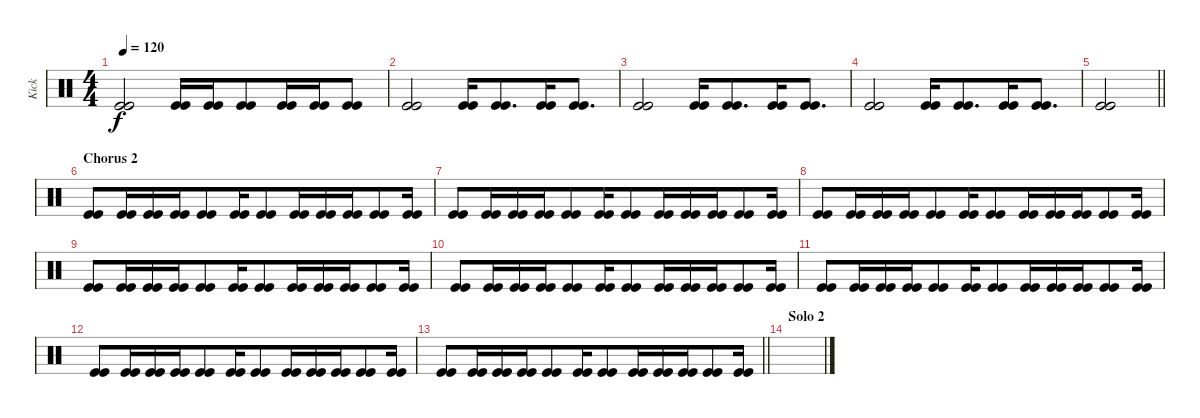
\track ("Kick" "Kick") {instrument percussion bank 2}
\staff {score}
\articulation defaults
\ts (4 4)
\tempo 120
\clef neutral
\ks c
("Kick (hit)" "Kick (hit)").2{dy f beam merge} ("Kick (hit)" "Kick (hit)").16{beam merge} ("Kick (hit)" "Kick (hit)").16{beam merge} ("Kick (hit)" "Kick (hit)").8{beam merge} ("Kick (hit)" "Kick (hit)").16 ("Kick (hit)" "Kick (hit)").16{beam merge} ("Kick (hit)" "Kick (hit)").8 |
("Kick (hit)" "Kick (hit)").2{beam merge} ("Kick (hit)" "Kick (hit)").16{beam merge} ("Kick (hit)" "Kick (hit)").8{d beam merge} ("Kick (hit)" "Kick (hit)").16 ("Kick (hit)" "Kick (hit)").8{d} |
("Kick (hit)" "Kick (hit)").2{beam merge} ("Kick (hit)" "Kick (hit)").16{beam merge} ("Kick (hit)" "Kick (hit)").8{d beam merge} ("Kick (hit)" "Kick (hit)").16 ("Kick (hit)" "Kick (hit)").8{d} |
("Kick (hit)" "Kick (hit)").2{beam merge} ("Kick (hit)" "Kick (hit)").16{beam merge} ("Kick (hit)" "Kick (hit)").8{d beam merge} ("Kick (hit)" "Kick (hit)").16 ("Kick (hit)" "Kick (hit)").8{d} |
\barLineRight lightlight
("Kick (hit)" "Kick (hit)").2 |
\section ("" "Chorus 2")
("Kick (hit)" "Kick (hit)").8{beam merge} ("Kick (hit)" "Kick (hit)").16{beam merge} ("Kick (hit)" "Kick (hit)").16{beam merge} ("Kick (hit)" "Kick (hit)").16{beam merge} ("Kick (hit)" "Kick (hit)").8{beam merge} ("Kick (hit)" "Kick (hit)").16{beam merge} ("Kick (hit)" "Kick (hit)").8{beam merge} ("Kick (hit)" "Kick (hit)").16{beam merge} ("Kick (hit)" "Kick (hit)").16{beam merge} ("Kick (hit)" "Kick (hit)").16{beam merge} ("Kick (hit)" "Kick (hit)").8{beam merge} ("Kick (hit)" "Kick (hit)").16 |
("Kick (hit)" "Kick (hit)").8{beam merge} ("Kick (hit)" "Kick (hit)").16{beam merge} ("Kick (hit)" "Kick (hit)").16{beam merge} ("Kick (hit)" "Kick (hit)").16{beam merge} ("Kick (hit)" "Kick (hit)").8{beam merge} ("Kick (hit)" "Kick (hit)").16{beam merge} ("Kick (hit)" "Kick (hit)").8{beam merge} ("Kick (hit)" "Kick (hit)").16{beam merge} ("Kick (hit)" "Kick (hit)").16{beam merge} ("Kick (hit)" "Kick (hit)").16{beam merge} ("Kick (hit)" "Kick (hit)").8{beam merge} ("Kick (hit)" "Kick (hit)").16 |
("Kick (hit)" "Kick (hit)").8{beam merge} ("Kick (hit)" "Kick (hit)").16{beam merge} ("Kick (hit)" "Kick (hit)").16{beam merge} ("Kick (hit)" "Kick (hit)").16{beam merge} ("Kick (hit)" "Kick (hit)").8{beam merge} ("Kick (hit)" "Kick (hit)").16{beam merge} ("Kick (hit)" "Kick (hit)").8{beam merge} ("Kick (hit)" "Kick (hit)").16{beam merge} ("Kick (hit)" "Kick (hit)").16{beam merge} ("Kick (hit)" "Kick (hit)").16{beam merge} ("Kick (hit)" "Kick (hit)").8{beam merge} ("Kick (hit)" "Kick (hit)").16 |
("Kick (hit)" "Kick (hit)").8{beam merge} ("Kick (hit)" "Kick (hit)").16{beam merge} ("Kick (hit)" "Kick (hit)").16{beam merge} ("Kick (hit)" "Kick (hit)").16{beam merge} ("Kick (hit)" "Kick (hit)").8{beam merge} ("Kick (hit)" "Kick (hit)").16{beam merge} ("Kick (hit)" "Kick (hit)").8{beam merge} ("Kick (hit)" "Kick (hit)").16{beam merge} ("Kick (hit)" "Kick (hit)").16{beam merge} ("Kick (hit)" "Kick (hit)").16{beam merge} ("Kick (hit)" "Kick (hit)").8{beam merge} ("Kick (hit)" "Kick (hit)").16 |
("Kick (hit)" "Kick (hit)").8{beam merge} ("Kick (hit)" "Kick (hit)").16{beam merge} ("Kick (hit)" "Kick (hit)").16{beam merge} ("Kick (hit)" "Kick (hit)").16{beam merge} ("Kick (hit)" "Kick (hit)").8{beam merge} ("Kick (hit)" "Kick (hit)").16{beam merge} ("Kick (hit)" "Kick (hit)").8{beam merge} ("Kick (hit)" "Kick (hit)").16{beam merge} ("Kick (hit)" "Kick (hit)").16{beam merge} ("Kick (hit)" "Kick (hit)").16{beam merge} ("Kick (hit)" "Kick (hit)").8{beam merge} ("Kick (hit)" "Kick (hit)").16 |
("Kick (hit)" "Kick (hit)").8{beam merge} ("Kick (hit)" "Kick (hit)").16{beam merge} ("Kick (hit)" "Kick (hit)").16{beam merge} ("Kick (hit)" "Kick (hit)").16{beam merge} ("Kick (hit)" "Kick (hit)").8{beam merge} ("Kick (hit)" "Kick (hit)").16{beam merge} ("Kick (hit)" "Kick (hit)").8{beam merge} ("Kick (hit)" "Kick (hit)").16{beam merge} ("Kick (hit)" "Kick (hit)").16{beam merge} ("Kick (hit)" "Kick (hit)").16{beam merge} ("Kick (hit)" "Kick (hit)").8{beam merge} ("Kick (hit)" "Kick (hit)").16 |
("Kick (hit)" "Kick (hit)").8{beam merge} ("Kick (hit)" "Kick (hit)").16{beam merge} ("Kick (hit)" "Kick (hit)").16{beam merge} ("Kick (hit)" "Kick (hit)").16{beam merge} ("Kick (hit)" "Kick (hit)").8{beam merge} ("Kick (hit)" "Kick (hit)").16{beam merge} ("Kick (hit)" "Kick (hit)").8{beam merge} ("Kick (hit)" "Kick (hit)").16{beam merge} ("Kick (hit)" "Kick (hit)").16{beam merge} ("Kick (hit)" "Kick (hit)").16{beam merge} ("Kick (hit)" "Kick (hit)").8{beam merge} ("Kick (hit)" "Kick (hit)").16 |
\barLineRight lightlight
("Kick (hit)" "Kick (hit)").8{beam merge} ("Kick (hit)" "Kick (hit)").16{beam merge} ("Kick (hit)" "Kick (hit)").16{beam merge} ("Kick (hit)" "Kick (hit)").16{beam merge} ("Kick (hit)" "Kick (hit)").8{beam merge} ("Kick (hit)" "Kick (hit)").16{beam merge} ("Kick (hit)" "Kick (hit)").8{beam merge} ("Kick (hit)" "Kick (hit)").16{beam merge} ("Kick (hit)" "Kick (hit)").16{beam merge} ("Kick (hit)" "Kick (hit)").16{beam merge} ("Kick (hit)" "Kick (hit)").8{beam merge} ("Kick (hit)" "Kick (hit)").16 |
\section ("" "Solo 2")
